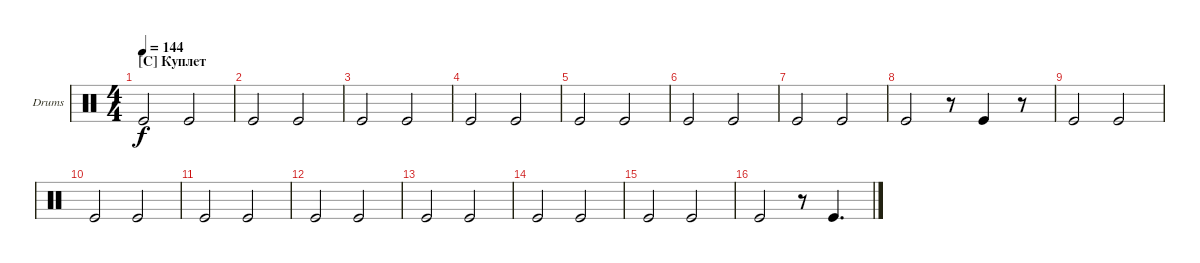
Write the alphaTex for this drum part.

\defaultSystemsLayout 4
\bracketExtendMode groupsimilarinstruments
\firstSystemTrackNameOrientation horizontal
\otherSystemsTrackNameOrientation horizontal
\track ("Kick" "Drums") {instrument percussion}
\staff {score}
\articulation defaults
\ts (4 4)
\section ("C" "Куплет")
\tempo 144
\clef neutral
\ks c "Kick (hit)".2{dy f} "Kick (hit)".2
|
"Kick (hit)".2 "Kick (hit)".2 |
"Kick (hit)".2 "Kick (hit)".2 |
"Kick (hit)".2 "Kick (hit)".2 |
"Kick (hit)".2 "Kick (hit)".2 |
"Kick (hit)".2 "Kick (hit)".2 |
"Kick (hit)".2 "Kick (hit)".2 |
"Kick (hit)".2 r.8 "Kick (hit)".4 r.8 |
"Kick (hit)".2 "Kick (hit)".2 |
"Kick (hit)".2 "Kick (hit)".2 |
"Kick (hit)".2 "Kick (hit)".2 |
"Kick (hit)".2 "Kick (hit)".2 |
"Kick (hit)".2 "Kick (hit)".2 |
"Kick (hit)".2 "Kick (hit)".2 |
"Kick (hit)".2 "Kick (hit)".2 |
"Kick (hit)".2 r.8 "Kick (hit)".4{d}
